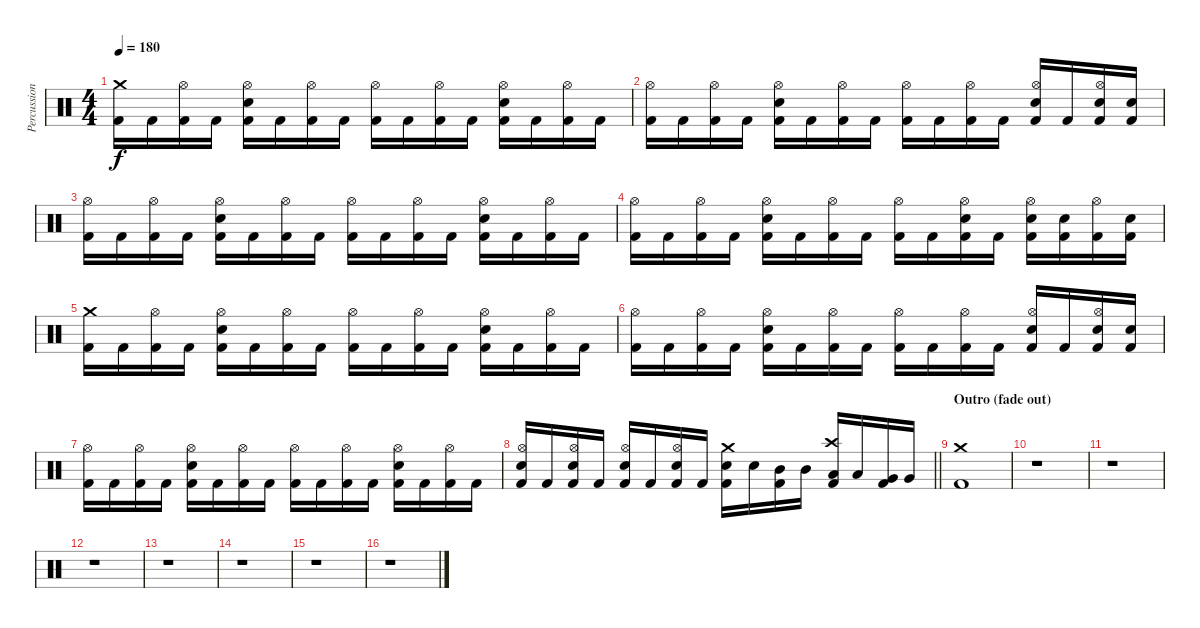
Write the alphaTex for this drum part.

\track ("Percussion" "Percussion") {instrument percussion}
\staff {score}
\articulation defaults
\ts (4 4)
\tempo 180
\clef neutral
\ks c
("Crash medium (hit)" "Kick (hit) 2").16{dy f} "Kick (hit) 2".16 ("Hi-Hat (open)" "Kick (hit) 2").16 "Kick (hit) 2".16 ("Kick (hit) 2" "Hi-Hat (open)" "Snare (hit) 2").16 "Kick (hit) 2".16 ("Hi-Hat (open)" "Kick (hit) 2").16 "Kick (hit) 2".16 ("Hi-Hat (open)" "Kick (hit) 2").16 "Kick (hit) 2".16 ("Hi-Hat (open)" "Kick (hit) 2").16 "Kick (hit) 2".16 ("Kick (hit) 2" "Hi-Hat (open)" "Snare (hit) 2").16 "Kick (hit) 2".16 ("Hi-Hat (open)" "Kick (hit) 2").16 "Kick (hit) 2".16 |
("Hi-Hat (open)" "Kick (hit) 2").16 "Kick (hit) 2".16 ("Hi-Hat (open)" "Kick (hit) 2").16 "Kick (hit) 2".16 ("Kick (hit) 2" "Hi-Hat (open)" "Snare (hit) 2").16 "Kick (hit) 2".16 ("Hi-Hat (open)" "Kick (hit) 2").16 "Kick (hit) 2".16 ("Hi-Hat (open)" "Kick (hit) 2").16 "Kick (hit) 2".16 ("Hi-Hat (open)" "Kick (hit) 2").16 "Kick (hit) 2".16 ("Kick (hit) 2" "Hi-Hat (open)" "Snare (hit) 2").16 "Kick (hit) 2".16 ("Kick (hit) 2" "Hi-Hat (open)" "Snare (hit) 2").16 ("Kick (hit) 2" "Snare (hit) 2").16 |
("Hi-Hat (open)" "Kick (hit) 2").16 "Kick (hit) 2".16 ("Hi-Hat (open)" "Kick (hit) 2").16 "Kick (hit) 2".16 ("Kick (hit) 2" "Hi-Hat (open)" "Snare (hit) 2").16 "Kick (hit) 2".16 ("Hi-Hat (open)" "Kick (hit) 2").16 "Kick (hit) 2".16 ("Hi-Hat (open)" "Kick (hit) 2").16 "Kick (hit) 2".16 ("Hi-Hat (open)" "Kick (hit) 2").16 "Kick (hit) 2".16 ("Kick (hit) 2" "Hi-Hat (open)" "Snare (hit) 2").16 "Kick (hit) 2".16 ("Hi-Hat (open)" "Kick (hit) 2").16 "Kick (hit) 2".16 |
("Hi-Hat (open)" "Kick (hit) 2").16 "Kick (hit) 2".16 ("Hi-Hat (open)" "Kick (hit) 2").16 "Kick (hit) 2".16 ("Kick (hit) 2" "Hi-Hat (open)" "Snare (hit) 2").16 "Kick (hit) 2".16 ("Hi-Hat (open)" "Kick (hit) 2").16 "Kick (hit) 2".16 ("Hi-Hat (open)" "Kick (hit) 2").16 "Kick (hit) 2".16 ("Kick (hit) 2" "Hi-Hat (open)" "Snare (hit) 2").16 "Kick (hit) 2".16 ("Kick (hit) 2" "Hi-Hat (open)" "Snare (hit) 2").16 ("Kick (hit) 2" "Snare (hit) 2").16 ("Hi-Hat (open)" "Kick (hit) 2").16 ("Kick (hit) 2" "Snare (hit) 2").16 |
("Crash medium (hit)" "Kick (hit) 2").16 "Kick (hit) 2".16 ("Hi-Hat (open)" "Kick (hit) 2").16 "Kick (hit) 2".16 ("Kick (hit) 2" "Hi-Hat (open)" "Snare (hit) 2").16 "Kick (hit) 2".16 ("Hi-Hat (open)" "Kick (hit) 2").16 "Kick (hit) 2".16 ("Hi-Hat (open)" "Kick (hit) 2").16 "Kick (hit) 2".16 ("Hi-Hat (open)" "Kick (hit) 2").16 "Kick (hit) 2".16 ("Kick (hit) 2" "Hi-Hat (open)" "Snare (hit) 2").16 "Kick (hit) 2".16 ("Hi-Hat (open)" "Kick (hit) 2").16 "Kick (hit) 2".16 |
("Hi-Hat (open)" "Kick (hit) 2").16 "Kick (hit) 2".16 ("Hi-Hat (open)" "Kick (hit) 2").16 "Kick (hit) 2".16 ("Kick (hit) 2" "Hi-Hat (open)" "Snare (hit) 2").16 "Kick (hit) 2".16 ("Hi-Hat (open)" "Kick (hit) 2").16 "Kick (hit) 2".16 ("Hi-Hat (open)" "Kick (hit) 2").16 "Kick (hit) 2".16 ("Hi-Hat (open)" "Kick (hit) 2").16 "Kick (hit) 2".16 ("Kick (hit) 2" "Hi-Hat (open)" "Snare (hit) 2").16 "Kick (hit) 2".16 ("Kick (hit) 2" "Hi-Hat (open)" "Snare (hit) 2").16 ("Kick (hit) 2" "Snare (hit) 2").16 |
("Hi-Hat (open)" "Kick (hit) 2").16 "Kick (hit) 2".16 ("Hi-Hat (open)" "Kick (hit) 2").16 "Kick (hit) 2".16 ("Kick (hit) 2" "Hi-Hat (open)" "Snare (hit) 2").16 "Kick (hit) 2".16 ("Hi-Hat (open)" "Kick (hit) 2").16 "Kick (hit) 2".16 ("Hi-Hat (open)" "Kick (hit) 2").16 "Kick (hit) 2".16 ("Hi-Hat (open)" "Kick (hit) 2").16 "Kick (hit) 2".16 ("Kick (hit) 2" "Hi-Hat (open)" "Snare (hit) 2").16 "Kick (hit) 2".16 ("Hi-Hat (open)" "Kick (hit) 2").16 "Kick (hit) 2".16 |
\barLineRight lightlight
("Kick (hit) 2" "Hi-Hat (open)" "Snare (hit) 2").16 "Kick (hit) 2".16 ("Kick (hit) 2" "Hi-Hat (open)" "Snare (hit) 2").16 "Kick (hit) 2".16 ("Kick (hit) 2" "Hi-Hat (open)" "Snare (hit) 2").16 "Kick (hit) 2".16 ("Kick (hit) 2" "Hi-Hat (open)" "Snare (hit) 2").16 "Kick (hit) 2".16 ("Kick (hit) 2" "Crash medium (hit)" "Snare (hit) 2").16 "Snare (hit) 2".16 ("Kick (hit) 2" "Mid Tom (hit)").16 "Mid Tom (hit)".16 ("Kick (hit) 2" "Crash high (hit)" "Low Tom (hit)").16 "Low Tom (hit)".16 ("Kick (hit) 2" "Very Low Tom (hit)").16 "Very Low Tom (hit)".16 |
\section ("" "Outro (fade out)")
("Crash medium (hit)" "Kick (hit) 2").1 |
r.1 |
r.1 |
r.1 |
r.1 |
r.1 |
r.1 |
r.1
